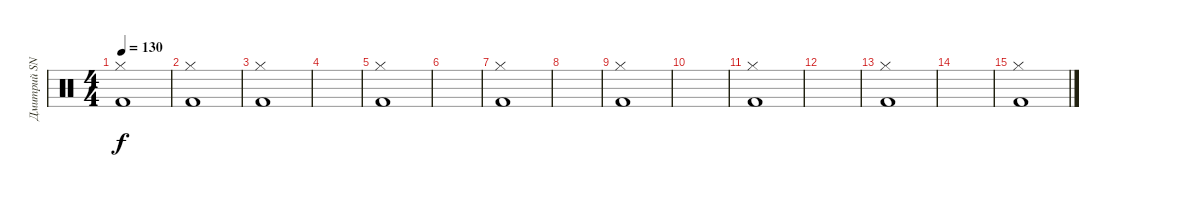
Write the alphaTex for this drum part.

\track ("Дмитрий SNAKE Хакимов" "Дмитрий SN") {instrument percussion}
\staff {score}
\articulation defaults
\ts (4 4)
\tempo 130
\clef neutral
\ks c
("Hi-Hat (closed)" "Kick (hit) 2").1{dy f} |
("Hi-Hat (closed)" "Kick (hit) 2").1 |
("Hi-Hat (closed)" "Kick (hit) 2").1 |
|
("Hi-Hat (closed)" "Kick (hit) 2").1 |
|
("Hi-Hat (closed)" "Kick (hit) 2").1 |
|
("Hi-Hat (closed)" "Kick (hit) 2").1 |
|
("Hi-Hat (closed)" "Kick (hit) 2").1 |
|
("Hi-Hat (closed)" "Kick (hit) 2").1 |
|
("Hi-Hat (closed)" "Kick (hit) 2").1
